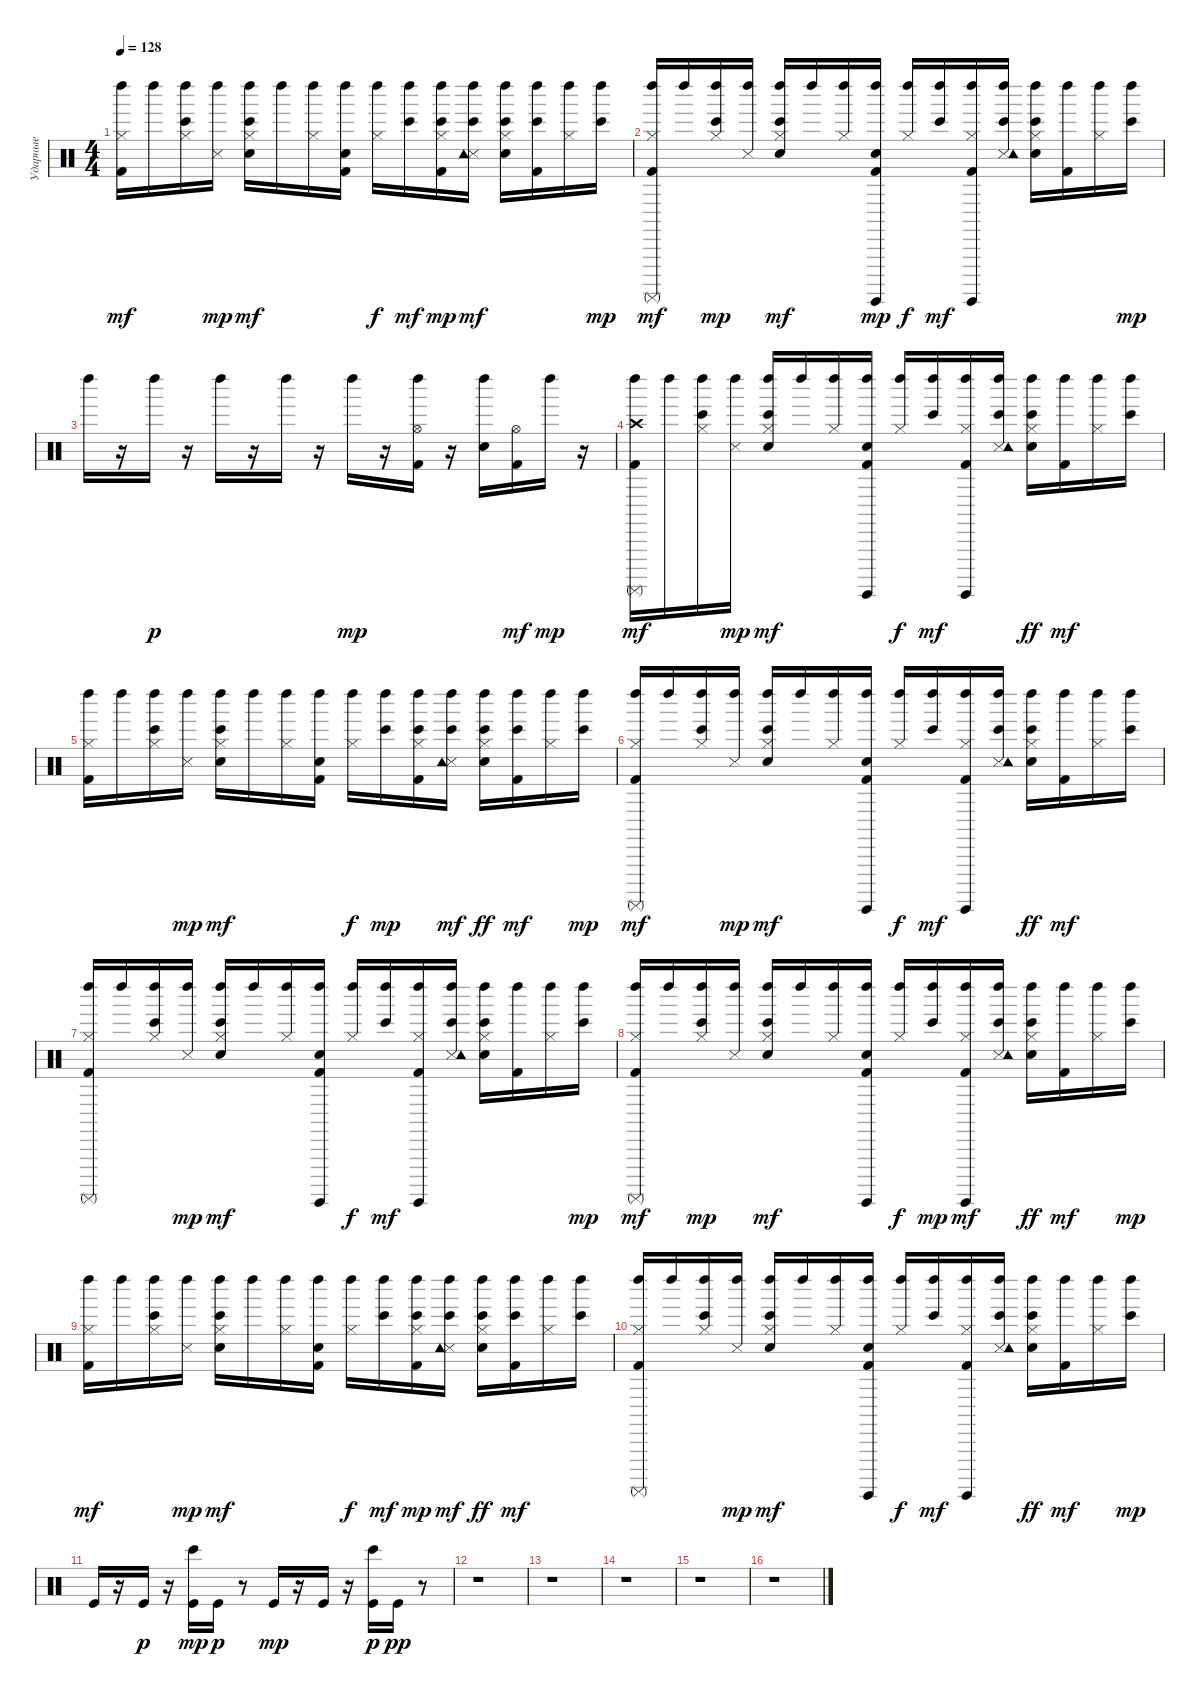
\track ("Ударные" "Ударные") {instrument percussion}
\staff {score}
\articulation defaults
\ts (4 4)
\tempo 128
\clef neutral
\ks c
("Kick (hit) 2" "Hi-Hat (closed)" "Left Maraca (hit)").16{dy mf} "Left Maraca (hit)".16 ("Bongo High (hit)" "Hi-Hat (closed)" "Left Maraca (hit)").16 ("Snare (side stick) 3" "Left Maraca (hit)").16{dy mp} ("Bongo High (hit)" "Electric Snare (hit)" "Hi-Hat (closed)" "Left Maraca (hit)").16{dy mf} "Left Maraca (hit)".16 ("Hi-Hat (closed)" "Left Maraca (hit)").16 ("Kick (hit) 2" "Electric Snare (hit)" "Left Maraca (hit)").16 ("Hi-Hat (closed)" "Left Maraca (hit)").16{dy f} ("Bongo High (hit)" "Left Maraca (hit)").16{dy mf} ("Bongo High (hit)" "Kick (hit) 2" "Hi-Hat (closed)" "Left Maraca (hit)").16{dy mp} ("Bongo High (hit)" "Snare (side stick) 3" "Tambourine (hit)" "Left Maraca (hit)").16{dy mf} ("Bongo High (hit)" "Electric Snare (hit)" "Hi-Hat (closed)" "Left Maraca (hit)").16 ("Bongo High (hit)" "Kick (hit) 2" "Left Maraca (hit)").16 ("Hi-Hat (closed)" "Left Maraca (hit)").16 ("Bongo High (hit)" "Left Maraca (hit)").16{dy mp} |
("Kick (hit) 2" "Hi-Hat (closed)" "Left Maraca (hit)" "Surdo (mute)").16{dy mf} "Left Maraca (hit)".16 ("Bongo High (hit)" "Hi-Hat (closed)" "Left Maraca (hit)").16{dy mp} ("Snare (side stick) 3" "Left Maraca (hit)").16 ("Bongo High (hit)" "Electric Snare (hit)" "Hi-Hat (closed)" "Left Maraca (hit)").16{dy mf} "Left Maraca (hit)".16 ("Hi-Hat (closed)" "Left Maraca (hit)").16 ("Kick (hit) 2" "Electric Snare (hit)" "Left Maraca (hit)" "Surdo (hit)").16{dy mp} ("Hi-Hat (closed)" "Left Maraca (hit)").16{dy f} ("Bongo High (hit)" "Left Maraca (hit)").16{dy mf} ("Kick (hit) 2" "Hi-Hat (closed)" "Left Maraca (hit)" "Surdo (hit)").16 ("Bongo High (hit)" "Snare (side stick) 3" "Tambourine (hit)" "Left Maraca (hit)").16 ("Bongo High (hit)" "Electric Snare (hit)" "Hi-Hat (closed)" "Left Maraca (hit)").16 ("Kick (hit) 2" "Left Maraca (hit)").16 ("Hi-Hat (closed)" "Left Maraca (hit)").16 ("Bongo High (hit)" "Left Maraca (hit)").16{dy mp} |
"Left Maraca (hit)".16 r.16 "Left Maraca (hit)".16{dy p} r.16 "Left Maraca (hit)".16 r.16 "Left Maraca (hit)".16 r.16 "Left Maraca (hit)".16{dy mp} r.16 ("Kick (hit) 2" "Hi-Hat (open)" "Left Maraca (hit)").16 r.16 ("Electric Snare (hit)" "Left Maraca (hit)").16 ("Kick (hit) 2" "Hi-Hat (open)").16{dy mf} "Left Maraca (hit)".16{dy mp} r.16 |
("Kick (hit) 2" "Crash high (hit)" "Left Maraca (hit)" "Surdo (mute)").16{dy mf} "Left Maraca (hit)".16 ("Bongo High (hit)" "Hi-Hat (closed)" "Left Maraca (hit)").16 ("Snare (side stick) 3" "Left Maraca (hit)").16{dy mp} ("Bongo High (hit)" "Electric Snare (hit)" "Hi-Hat (closed)" "Left Maraca (hit)").16{dy mf} "Left Maraca (hit)".16 ("Hi-Hat (closed)" "Left Maraca (hit)").16 ("Kick (hit) 2" "Electric Snare (hit)" "Left Maraca (hit)" "Surdo (hit)").16 ("Hi-Hat (closed)" "Left Maraca (hit)").16{dy f} ("Bongo High (hit)" "Left Maraca (hit)").16{dy mf} ("Kick (hit) 2" "Hi-Hat (closed)" "Left Maraca (hit)" "Surdo (hit)").16 ("Bongo High (hit)" "Snare (side stick) 3" "Tambourine (hit)" "Left Maraca (hit)").16 ("Bongo High (hit)" "Electric Snare (hit)" "Hi-Hat (closed)" "Left Maraca (hit)").16{dy ff} ("Kick (hit) 2" "Left Maraca (hit)").16{dy mf} ("Hi-Hat (closed)" "Left Maraca (hit)").16 ("Bongo High (hit)" "Left Maraca (hit)").16 |
("Kick (hit) 2" "Hi-Hat (closed)" "Left Maraca (hit)").16 "Left Maraca (hit)".16 ("Bongo High (hit)" "Hi-Hat (closed)" "Left Maraca (hit)").16 ("Snare (side stick) 3" "Left Maraca (hit)").16{dy mp} ("Bongo High (hit)" "Electric Snare (hit)" "Hi-Hat (closed)" "Left Maraca (hit)").16{dy mf} "Left Maraca (hit)".16 ("Hi-Hat (closed)" "Left Maraca (hit)").16 ("Kick (hit) 2" "Electric Snare (hit)" "Left Maraca (hit)").16 ("Hi-Hat (closed)" "Left Maraca (hit)").16{dy f} ("Bongo High (hit)" "Left Maraca (hit)").16{dy mp} ("Bongo High (hit)" "Kick (hit) 2" "Hi-Hat (closed)" "Left Maraca (hit)").16 ("Bongo High (hit)" "Snare (side stick) 3" "Tambourine (hit)" "Left Maraca (hit)").16{dy mf} ("Bongo High (hit)" "Electric Snare (hit)" "Hi-Hat (closed)" "Left Maraca (hit)").16{dy ff} ("Bongo High (hit)" "Kick (hit) 2" "Left Maraca (hit)").16{dy mf} ("Hi-Hat (closed)" "Left Maraca (hit)").16 ("Bongo High (hit)" "Left Maraca (hit)").16{dy mp} |
("Kick (hit) 2" "Hi-Hat (closed)" "Left Maraca (hit)" "Surdo (mute)").16{dy mf} "Left Maraca (hit)".16 ("Bongo High (hit)" "Hi-Hat (closed)" "Left Maraca (hit)").16 ("Snare (side stick) 3" "Left Maraca (hit)").16{dy mp} ("Bongo High (hit)" "Electric Snare (hit)" "Hi-Hat (closed)" "Left Maraca (hit)").16{dy mf} "Left Maraca (hit)".16 ("Hi-Hat (closed)" "Left Maraca (hit)").16 ("Kick (hit) 2" "Electric Snare (hit)" "Left Maraca (hit)" "Surdo (hit)").16 ("Hi-Hat (closed)" "Left Maraca (hit)").16{dy f} ("Bongo High (hit)" "Left Maraca (hit)").16{dy mf} ("Kick (hit) 2" "Hi-Hat (closed)" "Left Maraca (hit)" "Surdo (hit)").16 ("Bongo High (hit)" "Snare (side stick) 3" "Tambourine (hit)" "Left Maraca (hit)").16 ("Bongo High (hit)" "Electric Snare (hit)" "Hi-Hat (closed)" "Left Maraca (hit)").16{dy ff} ("Kick (hit) 2" "Left Maraca (hit)").16{dy mf} ("Hi-Hat (closed)" "Left Maraca (hit)").16 ("Bongo High (hit)" "Left Maraca (hit)").16 |
("Kick (hit) 2" "Hi-Hat (closed)" "Left Maraca (hit)" "Surdo (mute)").16 "Left Maraca (hit)".16 ("Bongo High (hit)" "Hi-Hat (closed)" "Left Maraca (hit)").16 ("Snare (side stick) 3" "Left Maraca (hit)").16{dy mp} ("Bongo High (hit)" "Electric Snare (hit)" "Hi-Hat (closed)" "Left Maraca (hit)").16{dy mf} "Left Maraca (hit)".16 ("Hi-Hat (closed)" "Left Maraca (hit)").16 ("Kick (hit) 2" "Electric Snare (hit)" "Left Maraca (hit)" "Surdo (hit)").16 ("Hi-Hat (closed)" "Left Maraca (hit)").16{dy f} ("Bongo High (hit)" "Left Maraca (hit)").16{dy mf} ("Kick (hit) 2" "Hi-Hat (closed)" "Left Maraca (hit)" "Surdo (hit)").16 ("Bongo High (hit)" "Snare (side stick) 3" "Tambourine (hit)" "Left Maraca (hit)").16 ("Bongo High (hit)" "Electric Snare (hit)" "Hi-Hat (closed)" "Left Maraca (hit)").16 ("Kick (hit) 2" "Left Maraca (hit)").16 ("Hi-Hat (closed)" "Left Maraca (hit)").16 ("Bongo High (hit)" "Left Maraca (hit)").16{dy mp} |
("Kick (hit) 2" "Hi-Hat (closed)" "Left Maraca (hit)" "Surdo (mute)").16{dy mf} "Left Maraca (hit)".16 ("Bongo High (hit)" "Hi-Hat (closed)" "Left Maraca (hit)").16{dy mp} ("Snare (side stick) 3" "Left Maraca (hit)").16 ("Bongo High (hit)" "Electric Snare (hit)" "Hi-Hat (closed)" "Left Maraca (hit)").16{dy mf} "Left Maraca (hit)".16 ("Hi-Hat (closed)" "Left Maraca (hit)").16 ("Kick (hit) 2" "Electric Snare (hit)" "Left Maraca (hit)" "Surdo (hit)").16 ("Hi-Hat (closed)" "Left Maraca (hit)").16{dy f} ("Bongo High (hit)" "Left Maraca (hit)").16{dy mp} ("Kick (hit) 2" "Hi-Hat (closed)" "Left Maraca (hit)" "Surdo (hit)").16{dy mf} ("Bongo High (hit)" "Snare (side stick) 3" "Tambourine (hit)" "Left Maraca (hit)").16 ("Bongo High (hit)" "Electric Snare (hit)" "Hi-Hat (closed)" "Left Maraca (hit)").16{dy ff} ("Kick (hit) 2" "Left Maraca (hit)").16{dy mf} ("Hi-Hat (closed)" "Left Maraca (hit)").16 ("Bongo High (hit)" "Left Maraca (hit)").16{dy mp} |
("Kick (hit) 2" "Hi-Hat (closed)" "Left Maraca (hit)").16{dy mf} "Left Maraca (hit)".16 ("Bongo High (hit)" "Hi-Hat (closed)" "Left Maraca (hit)").16 ("Snare (side stick) 3" "Left Maraca (hit)").16{dy mp} ("Bongo High (hit)" "Electric Snare (hit)" "Hi-Hat (closed)" "Left Maraca (hit)").16{dy mf} "Left Maraca (hit)".16 ("Hi-Hat (closed)" "Left Maraca (hit)").16 ("Kick (hit) 2" "Electric Snare (hit)" "Left Maraca (hit)").16 ("Hi-Hat (closed)" "Left Maraca (hit)").16{dy f} ("Bongo High (hit)" "Left Maraca (hit)").16{dy mf} ("Bongo High (hit)" "Kick (hit) 2" "Hi-Hat (closed)" "Left Maraca (hit)").16{dy mp} ("Bongo High (hit)" "Snare (side stick) 3" "Tambourine (hit)" "Left Maraca (hit)").16{dy mf} ("Bongo High (hit)" "Electric Snare (hit)" "Hi-Hat (closed)" "Left Maraca (hit)").16{dy ff} ("Bongo High (hit)" "Kick (hit) 2" "Left Maraca (hit)").16{dy mf} ("Hi-Hat (closed)" "Left Maraca (hit)").16 ("Bongo High (hit)" "Left Maraca (hit)").16 |
("Kick (hit) 2" "Hi-Hat (closed)" "Left Maraca (hit)" "Surdo (mute)").16 "Left Maraca (hit)".16 ("Bongo High (hit)" "Hi-Hat (closed)" "Left Maraca (hit)").16 ("Snare (side stick) 3" "Left Maraca (hit)").16{dy mp} ("Bongo High (hit)" "Electric Snare (hit)" "Hi-Hat (closed)" "Left Maraca (hit)").16{dy mf} "Left Maraca (hit)".16 ("Hi-Hat (closed)" "Left Maraca (hit)").16 ("Kick (hit) 2" "Electric Snare (hit)" "Left Maraca (hit)" "Surdo (hit)").16 ("Hi-Hat (closed)" "Left Maraca (hit)").16{dy f} ("Bongo High (hit)" "Left Maraca (hit)").16{dy mf} ("Kick (hit) 2" "Hi-Hat (closed)" "Left Maraca (hit)" "Surdo (hit)").16 ("Bongo High (hit)" "Snare (side stick) 3" "Tambourine (hit)" "Left Maraca (hit)").16 ("Bongo High (hit)" "Electric Snare (hit)" "Hi-Hat (closed)" "Left Maraca (hit)").16{dy ff} ("Kick (hit) 2" "Left Maraca (hit)").16{dy mf} ("Hi-Hat (closed)" "Left Maraca (hit)").16 ("Bongo High (hit)" "Left Maraca (hit)").16{dy mp} |
"Kick (hit)".16 r.16 "Kick (hit)".16{dy p} r.16 ("Bongo High (hit)" "Kick (hit)").16{dy mp} "Kick (hit)".16{dy p} r.8 "Kick (hit)".16{dy mp} r.16 "Kick (hit)".16 r.16 ("Bongo High (hit)" "Kick (hit)").16{dy p} "Kick (hit)".16{dy pp} r.8 |
r.1 |
r.1 |
r.1 |
r.1 |
r.1
